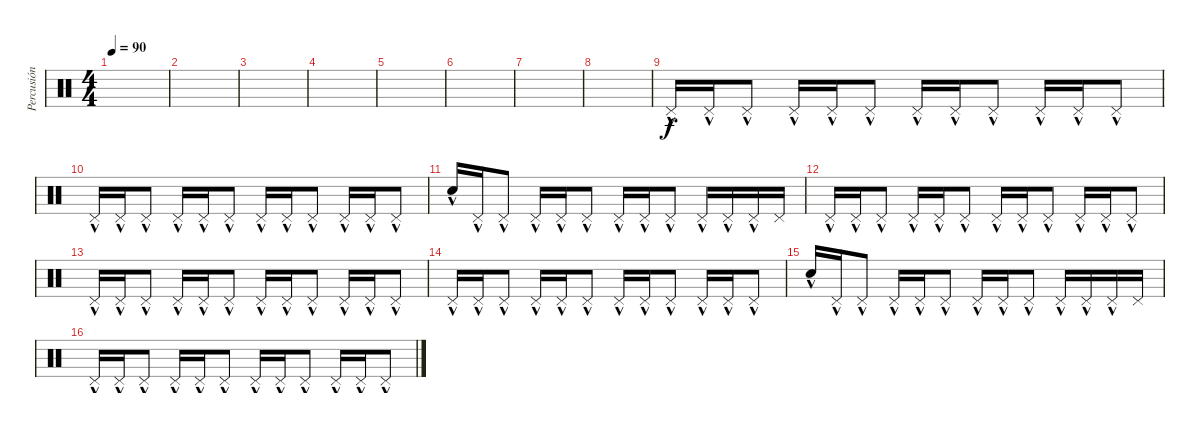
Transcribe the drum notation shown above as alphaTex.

\track ("Percusión" "Percusión") {instrument percussion}
\staff {score}
\articulation defaults
\ts (4 4)
\tempo 90
\clef neutral
\ks c
|
|
|
|
|
|
|
|
"Pedal Hi-Hat (hit)"{hac}.16 "Pedal Hi-Hat (hit)"{hac}.16 "Pedal Hi-Hat (hit)"{hac}.8 "Pedal Hi-Hat (hit)"{hac}.16 "Pedal Hi-Hat (hit)"{hac}.16 "Pedal Hi-Hat (hit)"{hac}.8 "Pedal Hi-Hat (hit)"{hac}.16 "Pedal Hi-Hat (hit)"{hac}.16 "Pedal Hi-Hat (hit)"{hac}.8 "Pedal Hi-Hat (hit)"{hac}.16 "Pedal Hi-Hat (hit)"{hac}.16 "Pedal Hi-Hat (hit)"{hac}.8 |
"Pedal Hi-Hat (hit)"{hac}.16 "Pedal Hi-Hat (hit)"{hac}.16 "Pedal Hi-Hat (hit)"{hac}.8 "Pedal Hi-Hat (hit)"{hac}.16 "Pedal Hi-Hat (hit)"{hac}.16 "Pedal Hi-Hat (hit)"{hac}.8 "Pedal Hi-Hat (hit)"{hac}.16 "Pedal Hi-Hat (hit)"{hac}.16 "Pedal Hi-Hat (hit)"{hac}.8 "Pedal Hi-Hat (hit)"{hac}.16 "Pedal Hi-Hat (hit)"{hac}.16 "Pedal Hi-Hat (hit)"{hac}.8 |
"Snare (hit)"{hac}.16 "Pedal Hi-Hat (hit)"{hac}.16 "Pedal Hi-Hat (hit)"{hac}.8 "Pedal Hi-Hat (hit)"{hac}.16 "Pedal Hi-Hat (hit)"{hac}.16 "Pedal Hi-Hat (hit)"{hac}.8 "Pedal Hi-Hat (hit)"{hac}.16 "Pedal Hi-Hat (hit)"{hac}.16 "Pedal Hi-Hat (hit)"{hac}.8 "Pedal Hi-Hat (hit)"{hac}.16 "Pedal Hi-Hat (hit)"{hac}.16 "Pedal Hi-Hat (hit)"{hac}.16 "Pedal Hi-Hat (hit)".16 |
"Pedal Hi-Hat (hit)"{hac}.16 "Pedal Hi-Hat (hit)"{hac}.16 "Pedal Hi-Hat (hit)"{hac}.8 "Pedal Hi-Hat (hit)"{hac}.16 "Pedal Hi-Hat (hit)"{hac}.16 "Pedal Hi-Hat (hit)"{hac}.8 "Pedal Hi-Hat (hit)"{hac}.16 "Pedal Hi-Hat (hit)"{hac}.16 "Pedal Hi-Hat (hit)"{hac}.8 "Pedal Hi-Hat (hit)"{hac}.16 "Pedal Hi-Hat (hit)"{hac}.16 "Pedal Hi-Hat (hit)"{hac}.8 |
"Pedal Hi-Hat (hit)"{hac}.16 "Pedal Hi-Hat (hit)"{hac}.16 "Pedal Hi-Hat (hit)"{hac}.8 "Pedal Hi-Hat (hit)"{hac}.16 "Pedal Hi-Hat (hit)"{hac}.16 "Pedal Hi-Hat (hit)"{hac}.8 "Pedal Hi-Hat (hit)"{hac}.16 "Pedal Hi-Hat (hit)"{hac}.16 "Pedal Hi-Hat (hit)"{hac}.8 "Pedal Hi-Hat (hit)"{hac}.16 "Pedal Hi-Hat (hit)"{hac}.16 "Pedal Hi-Hat (hit)"{hac}.8 |
"Pedal Hi-Hat (hit)"{hac}.16 "Pedal Hi-Hat (hit)"{hac}.16 "Pedal Hi-Hat (hit)"{hac}.8 "Pedal Hi-Hat (hit)"{hac}.16 "Pedal Hi-Hat (hit)"{hac}.16 "Pedal Hi-Hat (hit)"{hac}.8 "Pedal Hi-Hat (hit)"{hac}.16 "Pedal Hi-Hat (hit)"{hac}.16 "Pedal Hi-Hat (hit)"{hac}.8 "Pedal Hi-Hat (hit)"{hac}.16 "Pedal Hi-Hat (hit)"{hac}.16 "Pedal Hi-Hat (hit)"{hac}.8 |
"Snare (hit)"{hac}.16 "Pedal Hi-Hat (hit)"{hac}.16 "Pedal Hi-Hat (hit)"{hac}.8 "Pedal Hi-Hat (hit)"{hac}.16 "Pedal Hi-Hat (hit)"{hac}.16 "Pedal Hi-Hat (hit)"{hac}.8 "Pedal Hi-Hat (hit)"{hac}.16 "Pedal Hi-Hat (hit)"{hac}.16 "Pedal Hi-Hat (hit)"{hac}.8 "Pedal Hi-Hat (hit)"{hac}.16 "Pedal Hi-Hat (hit)"{hac}.16 "Pedal Hi-Hat (hit)"{hac}.16 "Pedal Hi-Hat (hit)".16 |
"Pedal Hi-Hat (hit)"{hac}.16 "Pedal Hi-Hat (hit)"{hac}.16 "Pedal Hi-Hat (hit)"{hac}.8 "Pedal Hi-Hat (hit)"{hac}.16 "Pedal Hi-Hat (hit)"{hac}.16 "Pedal Hi-Hat (hit)"{hac}.8 "Pedal Hi-Hat (hit)"{hac}.16 "Pedal Hi-Hat (hit)"{hac}.16 "Pedal Hi-Hat (hit)"{hac}.8 "Pedal Hi-Hat (hit)"{hac}.16 "Pedal Hi-Hat (hit)"{hac}.16 "Pedal Hi-Hat (hit)"{hac}.8
